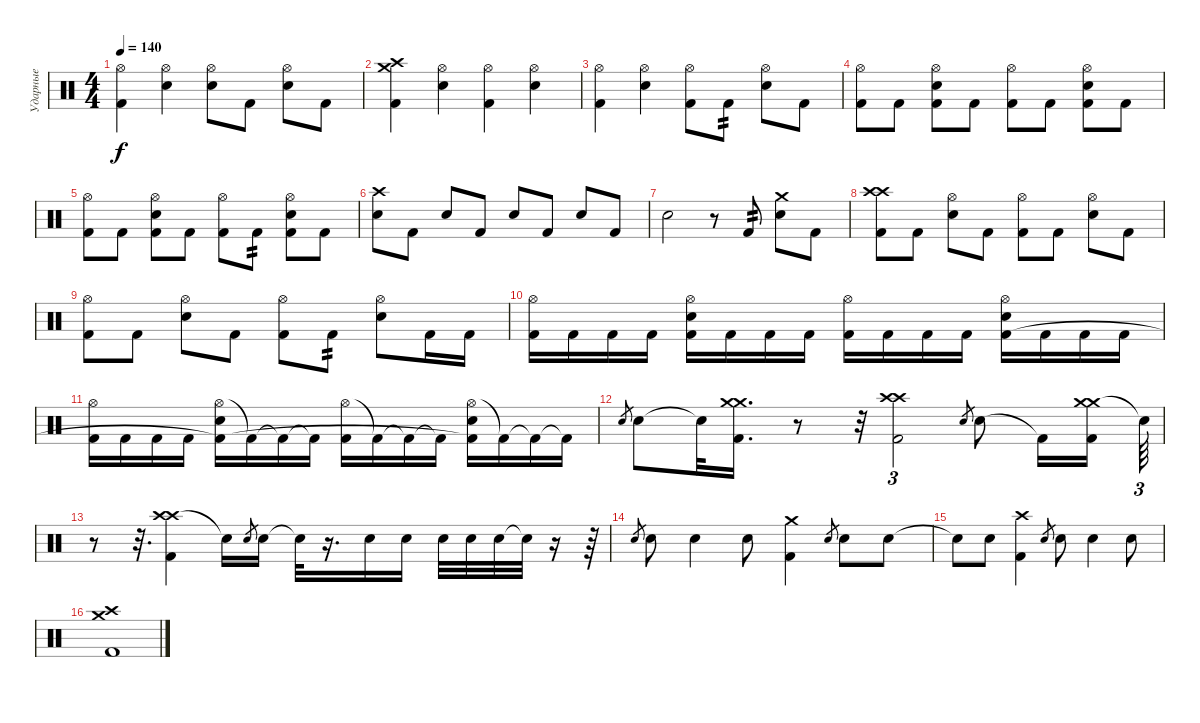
\track ("Ударные" "Ударные") {instrument percussion}
\staff {score}
\articulation defaults
\ts (4 4)
\tempo 140
\clef neutral
\ks c
("Hi-Hat (open)" "Kick (hit) 2").4{dy f} ("Hi-Hat (open)" "Electric Snare (hit)").4 ("Hi-Hat (open)" "Electric Snare (hit)").8 "Kick (hit) 2".8 ("Hi-Hat (open)" "Electric Snare (hit)").8 "Kick (hit) 2".8 |
("Crash medium (hit)" "Crash high (hit)" "Kick (hit) 2").4 ("Hi-Hat (open)" "Electric Snare (hit)").4 ("Hi-Hat (open)" "Kick (hit) 2").4 ("Hi-Hat (open)" "Electric Snare (hit)").4 |
("Hi-Hat (open)" "Kick (hit) 2").4 ("Hi-Hat (open)" "Electric Snare (hit)").4 ("Hi-Hat (open)" "Kick (hit) 2").8 "Kick (hit) 2".8{tp 2} ("Hi-Hat (open)" "Electric Snare (hit)").8 "Kick (hit) 2".8 |
("Hi-Hat (open)" "Kick (hit) 2").8 "Kick (hit) 2".8 ("Hi-Hat (open)" "Electric Snare (hit)" "Kick (hit) 2").8 "Kick (hit) 2".8 ("Hi-Hat (open)" "Kick (hit) 2").8 "Kick (hit) 2".8 ("Hi-Hat (open)" "Electric Snare (hit)" "Kick (hit) 2").8 "Kick (hit) 2".8 |
("Hi-Hat (open)" "Kick (hit) 2").8 "Kick (hit) 2".8 ("Hi-Hat (open)" "Electric Snare (hit)" "Kick (hit) 2").8 "Kick (hit) 2".8 ("Hi-Hat (open)" "Kick (hit) 2").8 "Kick (hit) 2".8{tp 2} ("Hi-Hat (open)" "Electric Snare (hit)" "Kick (hit) 2").8 "Kick (hit) 2".8 |
("Crash high (hit)" "Electric Snare (hit)").8 "Kick (hit) 2".8 "Electric Snare (hit)".8 "Kick (hit) 2".8 "Electric Snare (hit)".8 "Kick (hit) 2".8 "Electric Snare (hit)".8 "Kick (hit) 2".8 |
"Electric Snare (hit)".2 r.8 "Kick (hit) 2".8{tp 2} ("Crash medium (hit)" "Electric Snare (hit)").8 "Kick (hit) 2".8 |
("Crash high (hit)" "Crash high (hit)" "Kick (hit) 2").8 "Kick (hit) 2".8 ("Hi-Hat (open)" "Electric Snare (hit)").8 "Kick (hit) 2".8 ("Hi-Hat (open)" "Kick (hit) 2").8 "Kick (hit) 2".8 ("Hi-Hat (open)" "Electric Snare (hit)").8 "Kick (hit) 2".8 |
("Hi-Hat (open)" "Kick (hit) 2").8 "Kick (hit) 2".8 ("Hi-Hat (open)" "Electric Snare (hit)").8 "Kick (hit) 2".8 ("Hi-Hat (open)" "Kick (hit) 2").8 "Kick (hit) 2".8{tp 2} ("Hi-Hat (open)" "Electric Snare (hit)").8 "Kick (hit) 2".16 "Kick (hit) 2".16 |
("Hi-Hat (open)" "Kick (hit) 2").16 "Kick (hit) 2".16 "Kick (hit) 2".16 "Kick (hit) 2".16 ("Hi-Hat (open)" "Electric Snare (hit)" "Kick (hit) 2").16 "Kick (hit) 2".16 "Kick (hit) 2".16 "Kick (hit) 2".16 ("Hi-Hat (open)" "Kick (hit) 2").16 "Kick (hit) 2".16 "Kick (hit) 2".16 "Kick (hit) 2".16 ("Electric Snare (hit)" "Hi-Hat (open)" "Kick (hit) 2").16 "Kick (hit) 2".16 "Kick (hit) 2".16 "Kick (hit) 2".16 |
("Hi-Hat (open)" "Kick (hit) 2").16 "Kick (hit) 2".16 "Kick (hit) 2".16 "Kick (hit) 2".16 ("Hi-Hat (open)" "Electric Snare (hit)" "Kick (hit) 2"{t}).16 "Kick (hit) 2"{t}.16 "Kick (hit) 2"{t}.16 "Kick (hit) 2"{t}.16 ("Hi-Hat (open)" "Kick (hit) 2").16 "Kick (hit) 2"{t}.16 "Kick (hit) 2"{t}.16 "Kick (hit) 2"{t}.16 ("Hi-Hat (open)" "Electric Snare (hit)" "Kick (hit) 2"{t}).16 "Kick (hit) 2"{t}.16 "Kick (hit) 2"{t}.16 "Kick (hit) 2"{t}.16 |
"Electric Snare (hit)".8{gr} "Electric Snare (hit)".8 "Snare (hit)"{t}.32 ("Crash medium (hit)" "Crash medium (hit)" "Kick (hit) 2").16{d} r.8 r.32 ("Crash high (hit)" "Crash high (hit)" "Kick (hit) 2").2{tu (3 2)} "Electric Snare (hit)".8{gr} "Electric Snare (hit)".8 "Kick (hit) 2"{t}.16 ("Crash medium (hit)" "Crash medium (hit)" "Kick (hit) 2").16{beam splitsecondary} "Snare (hit)"{t}.64{tu (3 2)} |
r.8 r.32{d} ("Crash high (hit)" "Crash high (hit)" "Kick (hit) 2").4 "Snare (hit)"{t}.16 "Electric Snare (hit)".8{gr} "Electric Snare (hit)".16 "Snare (hit)"{t}.32 r.16{d} "Electric Snare (hit)".16 "Electric Snare (hit)".16 "Electric Snare (hit)".32 "Electric Snare (hit)".32 "Electric Snare (hit)".32 "Snare (hit)"{t}.32 r.16 r.64 |
"Electric Snare (hit)".8{gr} "Electric Snare (hit)".8 "Electric Snare (hit)".4 "Electric Snare (hit)".8 ("Crash medium (hit)" "Kick (hit) 2").4 "Electric Snare (hit)".8{gr} "Electric Snare (hit)".8 "Electric Snare (hit)".8 |
"Snare (hit)"{t}.8 "Electric Snare (hit)".8 ("Crash high (hit)" "Kick (hit) 2").4 "Electric Snare (hit)".8{gr} "Electric Snare (hit)".8 "Electric Snare (hit)".4 "Electric Snare (hit)".8 |
("Crash medium (hit)" "Crash high (hit)" "Kick (hit) 2").1
